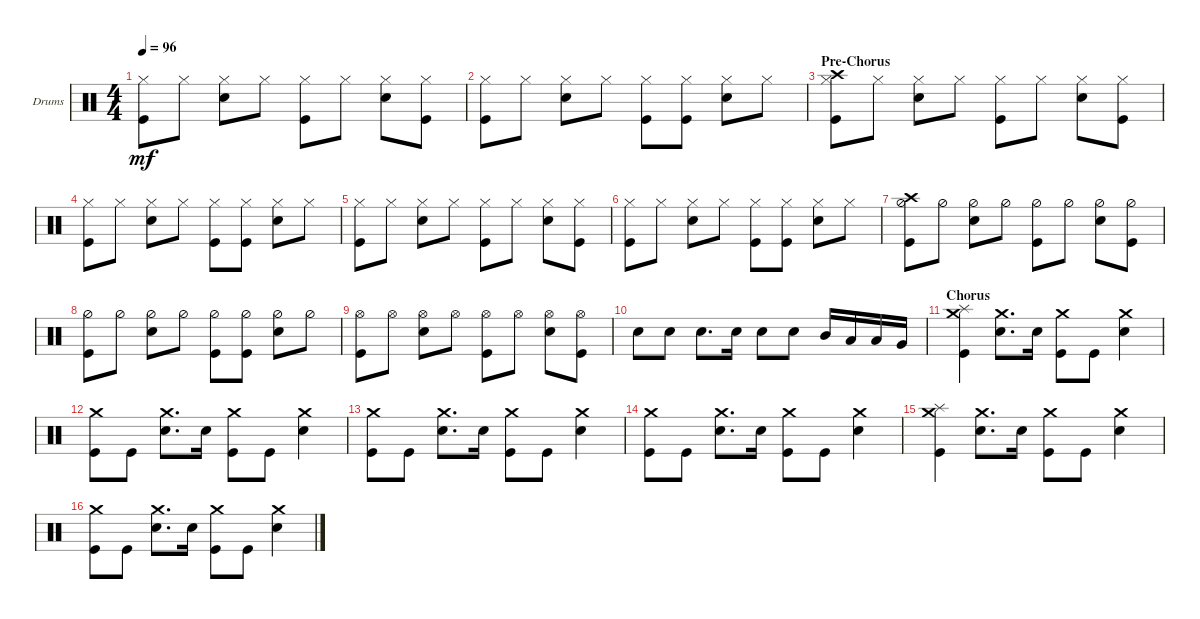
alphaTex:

\defaultSystemsLayout 4
\bracketExtendMode groupsimilarinstruments
\firstSystemTrackNameOrientation horizontal
\otherSystemsTrackNameOrientation horizontal
\track ("Tico" "Drums") {instrument percussion}
\staff {score}
\articulation defaults
\ts (4 4)
\tempo 96
\clef neutral
\ks c
("Kick (hit)" "Hi-Hat (closed)").8{dy mf} "Hi-Hat (closed)".8 ("Hi-Hat (closed)" "Snare (hit) 2").8 "Hi-Hat (closed)".8 ("Hi-Hat (closed)" "Kick (hit)").8 "Hi-Hat (closed)".8 ("Hi-Hat (closed)" "Snare (hit) 2").8 ("Hi-Hat (closed)" "Kick (hit)").8 |
("Kick (hit)" "Hi-Hat (closed)").8 "Hi-Hat (closed)".8 ("Hi-Hat (closed)" "Snare (hit) 2").8 "Hi-Hat (closed)".8 ("Hi-Hat (closed)" "Kick (hit)").8 ("Hi-Hat (closed)" "Kick (hit)").8 ("Hi-Hat (closed)" "Snare (hit) 2").8 "Hi-Hat (closed)".8 |
\section ("" "Pre-Chorus")
("Kick (hit)" "Crash high (hit)" "Hi-Hat (closed)").8 "Hi-Hat (closed)".8 ("Hi-Hat (closed)" "Snare (hit) 2").8 "Hi-Hat (closed)".8 ("Hi-Hat (closed)" "Kick (hit)").8 "Hi-Hat (closed)".8 ("Hi-Hat (closed)" "Snare (hit) 2").8 ("Hi-Hat (closed)" "Kick (hit)").8 |
("Kick (hit)" "Hi-Hat (closed)").8 "Hi-Hat (closed)".8 ("Hi-Hat (closed)" "Snare (hit) 2").8 "Hi-Hat (closed)".8 ("Hi-Hat (closed)" "Kick (hit)").8 ("Hi-Hat (closed)" "Kick (hit)").8 ("Hi-Hat (closed)" "Snare (hit) 2").8 "Hi-Hat (closed)".8 |
("Kick (hit)" "Hi-Hat (closed)").8 "Hi-Hat (closed)".8 ("Hi-Hat (closed)" "Snare (hit) 2").8 "Hi-Hat (closed)".8 ("Hi-Hat (closed)" "Kick (hit)").8 "Hi-Hat (closed)".8 ("Hi-Hat (closed)" "Snare (hit) 2").8 ("Hi-Hat (closed)" "Kick (hit)").8 |
("Kick (hit)" "Hi-Hat (closed)").8 "Hi-Hat (closed)".8 ("Hi-Hat (closed)" "Snare (hit) 2").8 "Hi-Hat (closed)".8 ("Hi-Hat (closed)" "Kick (hit)").8 ("Hi-Hat (closed)" "Kick (hit)").8 ("Hi-Hat (closed)" "Snare (hit) 2").8 "Hi-Hat (closed)".8 |
("Kick (hit)" "Crash high (hit)" "Hi-Hat (half)").8 "Hi-Hat (half)".8 ("Hi-Hat (half)" "Snare (hit) 2").8 "Hi-Hat (half)".8 ("Hi-Hat (half)" "Kick (hit)").8 "Hi-Hat (half)".8 ("Hi-Hat (half)" "Snare (hit) 2").8 ("Hi-Hat (half)" "Kick (hit)").8 |
("Kick (hit)" "Hi-Hat (half)").8 "Hi-Hat (half)".8 ("Hi-Hat (half)" "Snare (hit) 2").8 "Hi-Hat (half)".8 ("Hi-Hat (half)" "Kick (hit)").8 ("Hi-Hat (half)" "Kick (hit)").8 ("Hi-Hat (half)" "Snare (hit) 2").8 "Hi-Hat (half)".8 |
("Kick (hit)" "Hi-Hat (open)").8 "Hi-Hat (open)".8 ("Hi-Hat (open)" "Snare (hit) 2").8 "Hi-Hat (open)".8 ("Hi-Hat (open)" "Kick (hit)").8 "Hi-Hat (open)".8 ("Hi-Hat (open)" "Snare (hit) 2").8 ("Hi-Hat (open)" "Kick (hit)").8 |
"Snare (hit) 2".8 "Snare (hit) 2".8 "Snare (hit) 2".8{d} "Snare (hit) 2".16 "Snare (hit) 2".8 "Snare (hit) 2".8 "Mid Tom (hit)".16 "Low Tom (hit)".16 "Low Tom (hit)".16 "Very Low Tom (hit)".16 |
\section ("" "Chorus")
("Kick (hit)" "Splash (hit)" "Crash medium (hit)").4 ("Snare (hit) 2" "Crash medium (hit)").8{d} "Snare (hit) 2".16 ("Kick (hit)" "Crash medium (hit)").8 "Kick (hit)".8 ("Snare (hit) 2" "Crash medium (hit)").4 |
("Kick (hit)" "Crash medium (hit)").8 "Kick (hit)".8 ("Snare (hit) 2" "Crash medium (hit)").8{d} "Snare (hit) 2".16 ("Kick (hit)" "Crash medium (hit)").8 "Kick (hit)".8 ("Snare (hit) 2" "Crash medium (hit)").4 |
("Kick (hit)" "Crash medium (hit)").8 "Kick (hit)".8 ("Snare (hit) 2" "Crash medium (hit)").8{d} "Snare (hit) 2".16 ("Kick (hit)" "Crash medium (hit)").8 "Kick (hit)".8 ("Snare (hit) 2" "Crash medium (hit)").4 |
("Kick (hit)" "Crash medium (hit)").8 "Kick (hit)".8 ("Snare (hit) 2" "Crash medium (hit)").8{d} "Snare (hit) 2".16 ("Kick (hit)" "Crash medium (hit)").8 "Kick (hit)".8 ("Snare (hit) 2" "Crash medium (hit)").4 |
("Kick (hit)" "Splash (hit)" "Crash medium (hit)").4 ("Snare (hit) 2" "Crash medium (hit)").8{d} "Snare (hit) 2".16 ("Kick (hit)" "Crash medium (hit)").8 "Kick (hit)".8 ("Snare (hit) 2" "Crash medium (hit)").4 |
("Kick (hit)" "Crash medium (hit)").8 "Kick (hit)".8 ("Snare (hit) 2" "Crash medium (hit)").8{d} "Snare (hit) 2".16 ("Kick (hit)" "Crash medium (hit)").8 "Kick (hit)".8 ("Snare (hit) 2" "Crash medium (hit)").4
